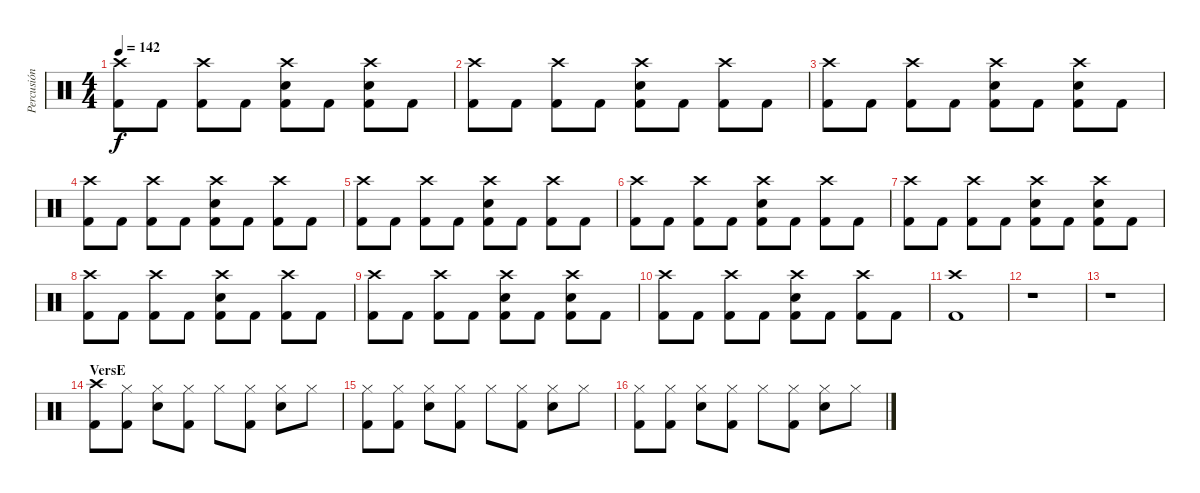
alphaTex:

\track ("Percusión  " "Percusión ") {instrument percussion}
\staff {score}
\articulation defaults
\ts (4 4)
\tempo 142
\clef neutral
\ks c
("Crash high (hit)" "Kick (hit) 2").8{dy f} "Kick (hit) 2".8 ("Crash high (hit)" "Kick (hit) 2").8 "Kick (hit) 2".8 ("Crash high (hit)" "Electric Snare (hit)" "Kick (hit) 2").8 "Kick (hit) 2".8 ("Crash high (hit)" "Electric Snare (hit)" "Kick (hit) 2").8 "Kick (hit) 2".8 |
("Crash high (hit)" "Kick (hit) 2").8 "Kick (hit) 2".8 ("Crash high (hit)" "Kick (hit) 2").8 "Kick (hit) 2".8 ("Crash high (hit)" "Electric Snare (hit)" "Kick (hit) 2").8 "Kick (hit) 2".8 ("Crash high (hit)" "Kick (hit) 2").8 "Kick (hit) 2".8 |
("Crash high (hit)" "Kick (hit) 2").8 "Kick (hit) 2".8 ("Crash high (hit)" "Kick (hit) 2").8 "Kick (hit) 2".8 ("Crash high (hit)" "Electric Snare (hit)" "Kick (hit) 2").8 "Kick (hit) 2".8 ("Crash high (hit)" "Electric Snare (hit)" "Kick (hit) 2").8 "Kick (hit) 2".8 |
("Crash high (hit)" "Kick (hit) 2").8 "Kick (hit) 2".8 ("Crash high (hit)" "Kick (hit) 2").8 "Kick (hit) 2".8 ("Crash high (hit)" "Electric Snare (hit)" "Kick (hit) 2").8 "Kick (hit) 2".8 ("Crash high (hit)" "Kick (hit) 2").8 "Kick (hit) 2".8 |
("Crash high (hit)" "Kick (hit) 2").8 "Kick (hit) 2".8 ("Crash high (hit)" "Kick (hit) 2").8 "Kick (hit) 2".8 ("Crash high (hit)" "Electric Snare (hit)" "Kick (hit) 2").8 "Kick (hit) 2".8 ("Crash high (hit)" "Kick (hit) 2").8 "Kick (hit) 2".8 |
("Crash high (hit)" "Kick (hit) 2").8 "Kick (hit) 2".8 ("Crash high (hit)" "Kick (hit) 2").8 "Kick (hit) 2".8 ("Crash high (hit)" "Electric Snare (hit)" "Kick (hit) 2").8 "Kick (hit) 2".8 ("Crash high (hit)" "Kick (hit) 2").8 "Kick (hit) 2".8 |
("Crash high (hit)" "Kick (hit) 2").8 "Kick (hit) 2".8 ("Crash high (hit)" "Kick (hit) 2").8 "Kick (hit) 2".8 ("Crash high (hit)" "Electric Snare (hit)" "Kick (hit) 2").8 "Kick (hit) 2".8 ("Crash high (hit)" "Electric Snare (hit)" "Kick (hit) 2").8 "Kick (hit) 2".8 |
("Crash high (hit)" "Kick (hit) 2").8 "Kick (hit) 2".8 ("Crash high (hit)" "Kick (hit) 2").8 "Kick (hit) 2".8 ("Crash high (hit)" "Electric Snare (hit)" "Kick (hit) 2").8 "Kick (hit) 2".8 ("Crash high (hit)" "Kick (hit) 2").8 "Kick (hit) 2".8 |
("Crash high (hit)" "Kick (hit) 2").8 "Kick (hit) 2".8 ("Crash high (hit)" "Kick (hit) 2").8 "Kick (hit) 2".8 ("Crash high (hit)" "Electric Snare (hit)" "Kick (hit) 2").8 "Kick (hit) 2".8 ("Crash high (hit)" "Electric Snare (hit)" "Kick (hit) 2").8 "Kick (hit) 2".8 |
("Crash high (hit)" "Kick (hit) 2").8 "Kick (hit) 2".8 ("Crash high (hit)" "Kick (hit) 2").8 "Kick (hit) 2".8 ("Crash high (hit)" "Electric Snare (hit)" "Kick (hit) 2").8 "Kick (hit) 2".8 ("Crash high (hit)" "Kick (hit) 2").8 "Kick (hit) 2".8 |
("Crash high (hit)" "Kick (hit) 2").1 |
r.1 |
r.1 |
\section ("" "VersE")
("Crash high (hit)" "Kick (hit) 2").8 ("Hi-Hat (closed)" "Kick (hit) 2").8 ("Electric Snare (hit)" "Hi-Hat (closed)").8 ("Hi-Hat (closed)" "Kick (hit) 2").8 "Hi-Hat (closed)".8 ("Hi-Hat (closed)" "Kick (hit) 2").8 ("Electric Snare (hit)" "Hi-Hat (closed)").8 "Hi-Hat (closed)".8 |
("Hi-Hat (closed)" "Kick (hit) 2").8 ("Hi-Hat (closed)" "Kick (hit) 2").8 ("Electric Snare (hit)" "Hi-Hat (closed)").8 ("Hi-Hat (closed)" "Kick (hit) 2").8 "Hi-Hat (closed)".8 ("Hi-Hat (closed)" "Kick (hit) 2").8 ("Electric Snare (hit)" "Hi-Hat (closed)").8 "Hi-Hat (closed)".8 |
("Hi-Hat (closed)" "Kick (hit) 2").8 ("Hi-Hat (closed)" "Kick (hit) 2").8 ("Electric Snare (hit)" "Hi-Hat (closed)").8 ("Hi-Hat (closed)" "Kick (hit) 2").8 "Hi-Hat (closed)".8 ("Hi-Hat (closed)" "Kick (hit) 2").8 ("Electric Snare (hit)" "Hi-Hat (closed)").8 "Hi-Hat (closed)".8
